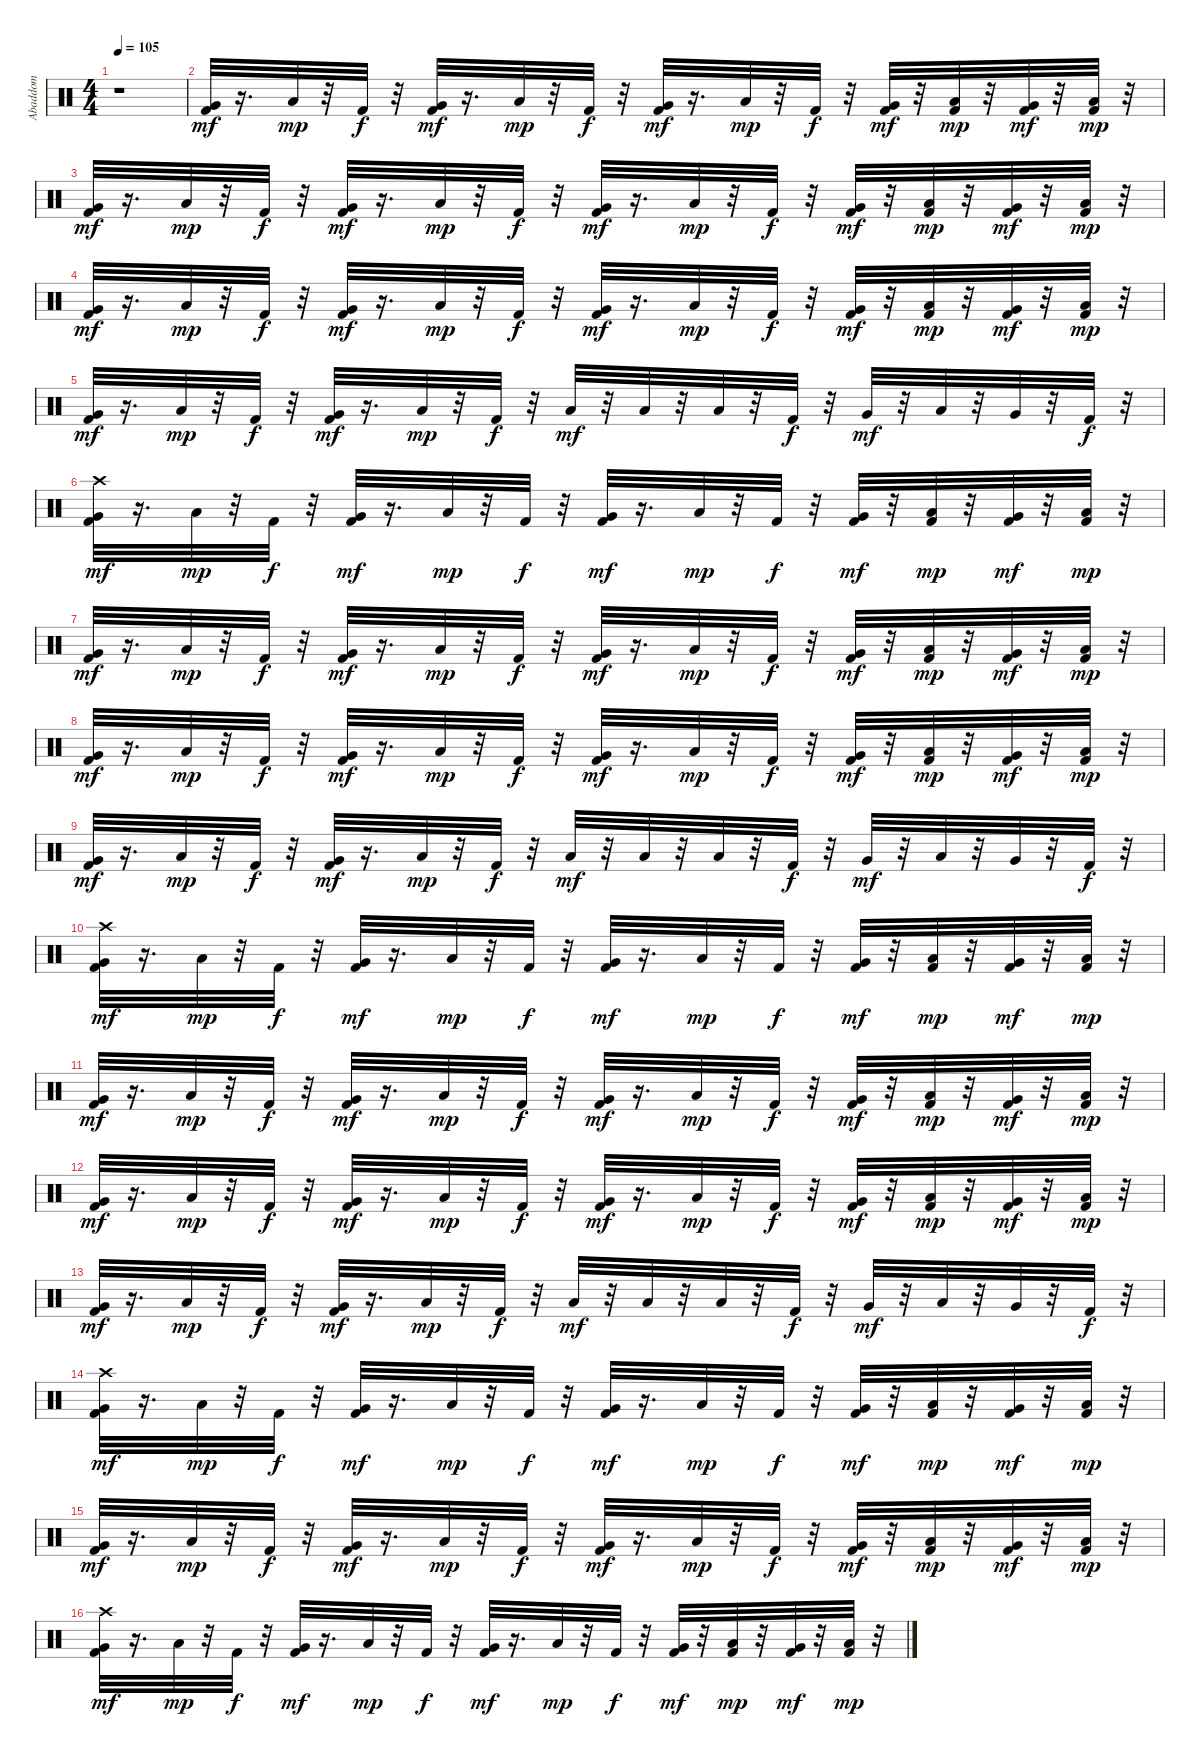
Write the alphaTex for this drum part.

\track ("Abaddom" "Abaddom") {instrument percussion}
\staff {score}
\articulation defaults
\ts (4 4)
\tempo 105
\clef neutral
\ks c
r.1{dy mf} |
("Very Low Tom (hit)" "Kick (hit) 2").32 r.16{d} "Low Floor Tom (hit)".32{dy mp} r.32 "Kick (hit) 2".32{dy f} r.32 ("Kick (hit) 2" "Very Low Tom (hit)").32{dy mf} r.16{d} "Low Floor Tom (hit)".32{dy mp} r.32 "Kick (hit) 2".32{dy f} r.32 ("Kick (hit) 2" "Very Low Tom (hit)").32{dy mf} r.16{d} "Low Floor Tom (hit)".32{dy mp} r.32 "Kick (hit) 2".32{dy f} r.32 ("Kick (hit) 2" "Very Low Tom (hit)").32{dy mf} r.32 ("Low Floor Tom (hit)" "Kick (hit) 2").32{dy mp} r.32 ("Kick (hit) 2" "Very Low Tom (hit)").32{dy mf} r.32 ("Kick (hit) 2" "Low Floor Tom (hit)").32{dy mp} r.32 |
("Very Low Tom (hit)" "Kick (hit) 2").32{dy mf} r.16{d} "Low Floor Tom (hit)".32{dy mp} r.32 "Kick (hit) 2".32{dy f} r.32 ("Kick (hit) 2" "Very Low Tom (hit)").32{dy mf} r.16{d} "Low Floor Tom (hit)".32{dy mp} r.32 "Kick (hit) 2".32{dy f} r.32 ("Kick (hit) 2" "Very Low Tom (hit)").32{dy mf} r.16{d} "Low Floor Tom (hit)".32{dy mp} r.32 "Kick (hit) 2".32{dy f} r.32 ("Kick (hit) 2" "Very Low Tom (hit)").32{dy mf} r.32 ("Low Floor Tom (hit)" "Kick (hit) 2").32{dy mp} r.32 ("Kick (hit) 2" "Very Low Tom (hit)").32{dy mf} r.32 ("Kick (hit) 2" "Low Floor Tom (hit)").32{dy mp} r.32 |
("Very Low Tom (hit)" "Kick (hit) 2").32{dy mf} r.16{d} "Low Floor Tom (hit)".32{dy mp} r.32 "Kick (hit) 2".32{dy f} r.32 ("Kick (hit) 2" "Very Low Tom (hit)").32{dy mf} r.16{d} "Low Floor Tom (hit)".32{dy mp} r.32 "Kick (hit) 2".32{dy f} r.32 ("Kick (hit) 2" "Very Low Tom (hit)").32{dy mf} r.16{d} "Low Floor Tom (hit)".32{dy mp} r.32 "Kick (hit) 2".32{dy f} r.32 ("Kick (hit) 2" "Very Low Tom (hit)").32{dy mf} r.32 ("Low Floor Tom (hit)" "Kick (hit) 2").32{dy mp} r.32 ("Kick (hit) 2" "Very Low Tom (hit)").32{dy mf} r.32 ("Kick (hit) 2" "Low Floor Tom (hit)").32{dy mp} r.32 |
("Very Low Tom (hit)" "Kick (hit) 2").32{dy mf} r.16{d} "Low Floor Tom (hit)".32{dy mp} r.32 "Kick (hit) 2".32{dy f} r.32 ("Kick (hit) 2" "Very Low Tom (hit)").32{dy mf} r.16{d} "Low Floor Tom (hit)".32{dy mp} r.32 "Kick (hit) 2".32{dy f} r.32 "Low Tom (hit)".32{dy mf} r.32 "Low Tom (hit)".32 r.32 "Low Tom (hit)".32 r.32 "Kick (hit) 2".32{dy f} r.32 "Very Low Tom (hit)".32{dy mf} r.32 "Low Tom (hit)".32 r.32 "Very Low Tom (hit)".32 r.32 "Kick (hit) 2".32{dy f} r.32 |
("Crash high (hit)" "Very Low Tom (hit)" "Kick (hit) 2").32{dy mf} r.16{d} "Low Floor Tom (hit)".32{dy mp} r.32 "Kick (hit) 2".32{dy f} r.32 ("Kick (hit) 2" "Very Low Tom (hit)").32{dy mf} r.16{d} "Low Floor Tom (hit)".32{dy mp} r.32 "Kick (hit) 2".32{dy f} r.32 ("Kick (hit) 2" "Very Low Tom (hit)").32{dy mf} r.16{d} "Low Floor Tom (hit)".32{dy mp} r.32 "Kick (hit) 2".32{dy f} r.32 ("Kick (hit) 2" "Very Low Tom (hit)").32{dy mf} r.32 ("Low Floor Tom (hit)" "Kick (hit) 2").32{dy mp} r.32 ("Kick (hit) 2" "Very Low Tom (hit)").32{dy mf} r.32 ("Kick (hit) 2" "Low Floor Tom (hit)").32{dy mp} r.32 |
("Very Low Tom (hit)" "Kick (hit) 2").32{dy mf} r.16{d} "Low Floor Tom (hit)".32{dy mp} r.32 "Kick (hit) 2".32{dy f} r.32 ("Kick (hit) 2" "Very Low Tom (hit)").32{dy mf} r.16{d} "Low Floor Tom (hit)".32{dy mp} r.32 "Kick (hit) 2".32{dy f} r.32 ("Kick (hit) 2" "Very Low Tom (hit)").32{dy mf} r.16{d} "Low Floor Tom (hit)".32{dy mp} r.32 "Kick (hit) 2".32{dy f} r.32 ("Kick (hit) 2" "Very Low Tom (hit)").32{dy mf} r.32 ("Low Floor Tom (hit)" "Kick (hit) 2").32{dy mp} r.32 ("Kick (hit) 2" "Very Low Tom (hit)").32{dy mf} r.32 ("Kick (hit) 2" "Low Floor Tom (hit)").32{dy mp} r.32 |
("Very Low Tom (hit)" "Kick (hit) 2").32{dy mf} r.16{d} "Low Floor Tom (hit)".32{dy mp} r.32 "Kick (hit) 2".32{dy f} r.32 ("Kick (hit) 2" "Very Low Tom (hit)").32{dy mf} r.16{d} "Low Floor Tom (hit)".32{dy mp} r.32 "Kick (hit) 2".32{dy f} r.32 ("Kick (hit) 2" "Very Low Tom (hit)").32{dy mf} r.16{d} "Low Floor Tom (hit)".32{dy mp} r.32 "Kick (hit) 2".32{dy f} r.32 ("Kick (hit) 2" "Very Low Tom (hit)").32{dy mf} r.32 ("Low Floor Tom (hit)" "Kick (hit) 2").32{dy mp} r.32 ("Kick (hit) 2" "Very Low Tom (hit)").32{dy mf} r.32 ("Kick (hit) 2" "Low Floor Tom (hit)").32{dy mp} r.32 |
("Very Low Tom (hit)" "Kick (hit) 2").32{dy mf} r.16{d} "Low Floor Tom (hit)".32{dy mp} r.32 "Kick (hit) 2".32{dy f} r.32 ("Kick (hit) 2" "Very Low Tom (hit)").32{dy mf} r.16{d} "Low Floor Tom (hit)".32{dy mp} r.32 "Kick (hit) 2".32{dy f} r.32 "Low Tom (hit)".32{dy mf} r.32 "Low Tom (hit)".32 r.32 "Low Tom (hit)".32 r.32 "Kick (hit) 2".32{dy f} r.32 "Very Low Tom (hit)".32{dy mf} r.32 "Low Tom (hit)".32 r.32 "Very Low Tom (hit)".32 r.32 "Kick (hit) 2".32{dy f} r.32 |
("Crash high (hit)" "Very Low Tom (hit)" "Kick (hit) 2").32{dy mf} r.16{d} "Low Floor Tom (hit)".32{dy mp} r.32 "Kick (hit) 2".32{dy f} r.32 ("Kick (hit) 2" "Very Low Tom (hit)").32{dy mf} r.16{d} "Low Floor Tom (hit)".32{dy mp} r.32 "Kick (hit) 2".32{dy f} r.32 ("Kick (hit) 2" "Very Low Tom (hit)").32{dy mf} r.16{d} "Low Floor Tom (hit)".32{dy mp} r.32 "Kick (hit) 2".32{dy f} r.32 ("Kick (hit) 2" "Very Low Tom (hit)").32{dy mf} r.32 ("Low Floor Tom (hit)" "Kick (hit) 2").32{dy mp} r.32 ("Kick (hit) 2" "Very Low Tom (hit)").32{dy mf} r.32 ("Kick (hit) 2" "Low Floor Tom (hit)").32{dy mp} r.32 |
("Very Low Tom (hit)" "Kick (hit) 2").32{dy mf} r.16{d} "Low Floor Tom (hit)".32{dy mp} r.32 "Kick (hit) 2".32{dy f} r.32 ("Kick (hit) 2" "Very Low Tom (hit)").32{dy mf} r.16{d} "Low Floor Tom (hit)".32{dy mp} r.32 "Kick (hit) 2".32{dy f} r.32 ("Kick (hit) 2" "Very Low Tom (hit)").32{dy mf} r.16{d} "Low Floor Tom (hit)".32{dy mp} r.32 "Kick (hit) 2".32{dy f} r.32 ("Kick (hit) 2" "Very Low Tom (hit)").32{dy mf} r.32 ("Low Floor Tom (hit)" "Kick (hit) 2").32{dy mp} r.32 ("Kick (hit) 2" "Very Low Tom (hit)").32{dy mf} r.32 ("Kick (hit) 2" "Low Floor Tom (hit)").32{dy mp} r.32 |
("Very Low Tom (hit)" "Kick (hit) 2").32{dy mf} r.16{d} "Low Floor Tom (hit)".32{dy mp} r.32 "Kick (hit) 2".32{dy f} r.32 ("Kick (hit) 2" "Very Low Tom (hit)").32{dy mf} r.16{d} "Low Floor Tom (hit)".32{dy mp} r.32 "Kick (hit) 2".32{dy f} r.32 ("Kick (hit) 2" "Very Low Tom (hit)").32{dy mf} r.16{d} "Low Floor Tom (hit)".32{dy mp} r.32 "Kick (hit) 2".32{dy f} r.32 ("Kick (hit) 2" "Very Low Tom (hit)").32{dy mf} r.32 ("Low Floor Tom (hit)" "Kick (hit) 2").32{dy mp} r.32 ("Kick (hit) 2" "Very Low Tom (hit)").32{dy mf} r.32 ("Kick (hit) 2" "Low Floor Tom (hit)").32{dy mp} r.32 |
("Very Low Tom (hit)" "Kick (hit) 2").32{dy mf} r.16{d} "Low Floor Tom (hit)".32{dy mp} r.32 "Kick (hit) 2".32{dy f} r.32 ("Kick (hit) 2" "Very Low Tom (hit)").32{dy mf} r.16{d} "Low Floor Tom (hit)".32{dy mp} r.32 "Kick (hit) 2".32{dy f} r.32 "Low Tom (hit)".32{dy mf} r.32 "Low Tom (hit)".32 r.32 "Low Tom (hit)".32 r.32 "Kick (hit) 2".32{dy f} r.32 "Very Low Tom (hit)".32{dy mf} r.32 "Low Tom (hit)".32 r.32 "Very Low Tom (hit)".32 r.32 "Kick (hit) 2".32{dy f} r.32 |
("Crash high (hit)" "Very Low Tom (hit)" "Kick (hit) 2").32{dy mf} r.16{d} "Low Floor Tom (hit)".32{dy mp} r.32 "Kick (hit) 2".32{dy f} r.32 ("Kick (hit) 2" "Very Low Tom (hit)").32{dy mf} r.16{d} "Low Floor Tom (hit)".32{dy mp} r.32 "Kick (hit) 2".32{dy f} r.32 ("Kick (hit) 2" "Very Low Tom (hit)").32{dy mf} r.16{d} "Low Floor Tom (hit)".32{dy mp} r.32 "Kick (hit) 2".32{dy f} r.32 ("Kick (hit) 2" "Very Low Tom (hit)").32{dy mf} r.32 ("Low Floor Tom (hit)" "Kick (hit) 2").32{dy mp} r.32 ("Kick (hit) 2" "Very Low Tom (hit)").32{dy mf} r.32 ("Kick (hit) 2" "Low Floor Tom (hit)").32{dy mp} r.32 |
("Very Low Tom (hit)" "Kick (hit) 2").32{dy mf} r.16{d} "Low Floor Tom (hit)".32{dy mp} r.32 "Kick (hit) 2".32{dy f} r.32 ("Kick (hit) 2" "Very Low Tom (hit)").32{dy mf} r.16{d} "Low Floor Tom (hit)".32{dy mp} r.32 "Kick (hit) 2".32{dy f} r.32 ("Kick (hit) 2" "Very Low Tom (hit)").32{dy mf} r.16{d} "Low Floor Tom (hit)".32{dy mp} r.32 "Kick (hit) 2".32{dy f} r.32 ("Kick (hit) 2" "Very Low Tom (hit)").32{dy mf} r.32 ("Low Floor Tom (hit)" "Kick (hit) 2").32{dy mp} r.32 ("Kick (hit) 2" "Very Low Tom (hit)").32{dy mf} r.32 ("Kick (hit) 2" "Low Floor Tom (hit)").32{dy mp} r.32 |
("Crash high (hit)" "Very Low Tom (hit)" "Kick (hit) 2").32{dy mf} r.16{d} "Low Floor Tom (hit)".32{dy mp} r.32 "Kick (hit) 2".32{dy f} r.32 ("Kick (hit) 2" "Very Low Tom (hit)").32{dy mf} r.16{d} "Low Floor Tom (hit)".32{dy mp} r.32 "Kick (hit) 2".32{dy f} r.32 ("Kick (hit) 2" "Very Low Tom (hit)").32{dy mf} r.16{d} "Low Floor Tom (hit)".32{dy mp} r.32 "Kick (hit) 2".32{dy f} r.32 ("Kick (hit) 2" "Very Low Tom (hit)").32{dy mf} r.32 ("Low Floor Tom (hit)" "Kick (hit) 2").32{dy mp} r.32 ("Kick (hit) 2" "Very Low Tom (hit)").32{dy mf} r.32 ("Kick (hit) 2" "Low Floor Tom (hit)").32{dy mp} r.32
